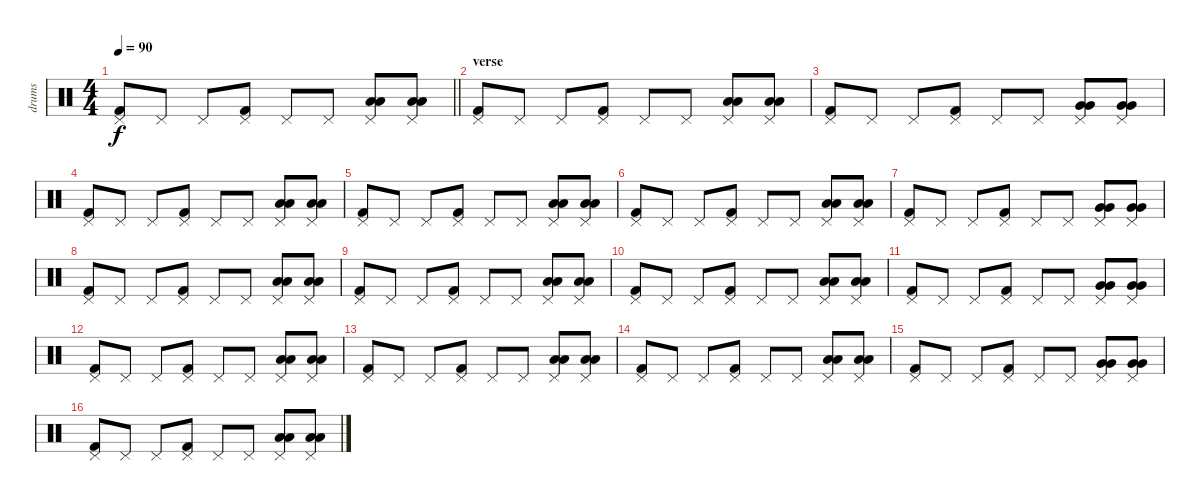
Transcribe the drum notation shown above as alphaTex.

\track ("drums" "drums") {instrument percussion}
\staff {score}
\articulation defaults
\ts (4 4)
\tempo 90
\clef neutral
\barLineRight lightlight
\ks c
("Kick (hit) 2" "Pedal Hi-Hat (hit)").8{dy f} "Pedal Hi-Hat (hit)".8 "Pedal Hi-Hat (hit)".8 ("Kick (hit) 2" "Pedal Hi-Hat (hit)").8 "Pedal Hi-Hat (hit)".8 "Pedal Hi-Hat (hit)".8 ("Low Floor Tom (hit)" "Low Floor Tom (hit)" "Pedal Hi-Hat (hit)").8 ("Low Floor Tom (hit)" "Low Floor Tom (hit)" "Pedal Hi-Hat (hit)").8 |
\section ("" "verse ")
("Kick (hit) 2" "Pedal Hi-Hat (hit)").8 "Pedal Hi-Hat (hit)".8 "Pedal Hi-Hat (hit)".8 ("Kick (hit) 2" "Pedal Hi-Hat (hit)").8 "Pedal Hi-Hat (hit)".8 "Pedal Hi-Hat (hit)".8 ("Low Tom (hit)" "Low Tom (hit)" "Pedal Hi-Hat (hit)").8 ("Low Tom (hit)" "Low Tom (hit)" "Pedal Hi-Hat (hit)").8 |
("Kick (hit) 2" "Pedal Hi-Hat (hit)").8 "Pedal Hi-Hat (hit)".8 "Pedal Hi-Hat (hit)".8 ("Kick (hit) 2" "Pedal Hi-Hat (hit)").8 "Pedal Hi-Hat (hit)".8 "Pedal Hi-Hat (hit)".8 ("Very Low Tom (hit)" "Very Low Tom (hit)" "Pedal Hi-Hat (hit)").8 ("Very Low Tom (hit)" "Very Low Tom (hit)" "Pedal Hi-Hat (hit)").8 |
("Kick (hit) 2" "Pedal Hi-Hat (hit)").8 "Pedal Hi-Hat (hit)".8 "Pedal Hi-Hat (hit)".8 ("Kick (hit) 2" "Pedal Hi-Hat (hit)").8 "Pedal Hi-Hat (hit)".8 "Pedal Hi-Hat (hit)".8 ("Low Tom (hit)" "Low Tom (hit)" "Pedal Hi-Hat (hit)").8 ("Low Tom (hit)" "Low Tom (hit)" "Pedal Hi-Hat (hit)").8 |
("Kick (hit) 2" "Pedal Hi-Hat (hit)").8 "Pedal Hi-Hat (hit)".8 "Pedal Hi-Hat (hit)".8 ("Kick (hit) 2" "Pedal Hi-Hat (hit)").8 "Pedal Hi-Hat (hit)".8 "Pedal Hi-Hat (hit)".8 ("Low Floor Tom (hit)" "Low Floor Tom (hit)" "Pedal Hi-Hat (hit)").8 ("Low Floor Tom (hit)" "Low Floor Tom (hit)" "Pedal Hi-Hat (hit)").8 |
("Kick (hit) 2" "Pedal Hi-Hat (hit)").8 "Pedal Hi-Hat (hit)".8 "Pedal Hi-Hat (hit)".8 ("Kick (hit) 2" "Pedal Hi-Hat (hit)").8 "Pedal Hi-Hat (hit)".8 "Pedal Hi-Hat (hit)".8 ("Low Tom (hit)" "Low Tom (hit)" "Pedal Hi-Hat (hit)").8 ("Low Tom (hit)" "Low Tom (hit)" "Pedal Hi-Hat (hit)").8 |
("Kick (hit) 2" "Pedal Hi-Hat (hit)").8 "Pedal Hi-Hat (hit)".8 "Pedal Hi-Hat (hit)".8 ("Kick (hit) 2" "Pedal Hi-Hat (hit)").8 "Pedal Hi-Hat (hit)".8 "Pedal Hi-Hat (hit)".8 ("Very Low Tom (hit)" "Very Low Tom (hit)" "Pedal Hi-Hat (hit)").8 ("Very Low Tom (hit)" "Very Low Tom (hit)" "Pedal Hi-Hat (hit)").8 |
("Kick (hit) 2" "Pedal Hi-Hat (hit)").8 "Pedal Hi-Hat (hit)".8 "Pedal Hi-Hat (hit)".8 ("Kick (hit) 2" "Pedal Hi-Hat (hit)").8 "Pedal Hi-Hat (hit)".8 "Pedal Hi-Hat (hit)".8 ("Low Tom (hit)" "Low Tom (hit)" "Pedal Hi-Hat (hit)").8 ("Low Tom (hit)" "Low Tom (hit)" "Pedal Hi-Hat (hit)").8 |
("Kick (hit) 2" "Pedal Hi-Hat (hit)").8 "Pedal Hi-Hat (hit)".8 "Pedal Hi-Hat (hit)".8 ("Kick (hit) 2" "Pedal Hi-Hat (hit)").8 "Pedal Hi-Hat (hit)".8 "Pedal Hi-Hat (hit)".8 ("Low Floor Tom (hit)" "Low Floor Tom (hit)" "Pedal Hi-Hat (hit)").8 ("Low Floor Tom (hit)" "Low Floor Tom (hit)" "Pedal Hi-Hat (hit)").8 |
("Kick (hit) 2" "Pedal Hi-Hat (hit)").8 "Pedal Hi-Hat (hit)".8 "Pedal Hi-Hat (hit)".8 ("Kick (hit) 2" "Pedal Hi-Hat (hit)").8 "Pedal Hi-Hat (hit)".8 "Pedal Hi-Hat (hit)".8 ("Low Tom (hit)" "Low Tom (hit)" "Pedal Hi-Hat (hit)").8 ("Low Tom (hit)" "Low Tom (hit)" "Pedal Hi-Hat (hit)").8 |
("Kick (hit) 2" "Pedal Hi-Hat (hit)").8 "Pedal Hi-Hat (hit)".8 "Pedal Hi-Hat (hit)".8 ("Kick (hit) 2" "Pedal Hi-Hat (hit)").8 "Pedal Hi-Hat (hit)".8 "Pedal Hi-Hat (hit)".8 ("Very Low Tom (hit)" "Very Low Tom (hit)" "Pedal Hi-Hat (hit)").8 ("Very Low Tom (hit)" "Very Low Tom (hit)" "Pedal Hi-Hat (hit)").8 |
("Kick (hit) 2" "Pedal Hi-Hat (hit)").8 "Pedal Hi-Hat (hit)".8 "Pedal Hi-Hat (hit)".8 ("Kick (hit) 2" "Pedal Hi-Hat (hit)").8 "Pedal Hi-Hat (hit)".8 "Pedal Hi-Hat (hit)".8 ("Low Tom (hit)" "Low Tom (hit)" "Pedal Hi-Hat (hit)").8 ("Low Tom (hit)" "Low Tom (hit)" "Pedal Hi-Hat (hit)").8 |
("Kick (hit) 2" "Pedal Hi-Hat (hit)").8 "Pedal Hi-Hat (hit)".8 "Pedal Hi-Hat (hit)".8 ("Kick (hit) 2" "Pedal Hi-Hat (hit)").8 "Pedal Hi-Hat (hit)".8 "Pedal Hi-Hat (hit)".8 ("Low Floor Tom (hit)" "Low Floor Tom (hit)" "Pedal Hi-Hat (hit)").8 ("Low Floor Tom (hit)" "Low Floor Tom (hit)" "Pedal Hi-Hat (hit)").8 |
("Kick (hit) 2" "Pedal Hi-Hat (hit)").8 "Pedal Hi-Hat (hit)".8 "Pedal Hi-Hat (hit)".8 ("Kick (hit) 2" "Pedal Hi-Hat (hit)").8 "Pedal Hi-Hat (hit)".8 "Pedal Hi-Hat (hit)".8 ("Low Tom (hit)" "Low Tom (hit)" "Pedal Hi-Hat (hit)").8 ("Low Tom (hit)" "Low Tom (hit)" "Pedal Hi-Hat (hit)").8 |
("Kick (hit) 2" "Pedal Hi-Hat (hit)").8 "Pedal Hi-Hat (hit)".8 "Pedal Hi-Hat (hit)".8 ("Kick (hit) 2" "Pedal Hi-Hat (hit)").8 "Pedal Hi-Hat (hit)".8 "Pedal Hi-Hat (hit)".8 ("Very Low Tom (hit)" "Very Low Tom (hit)" "Pedal Hi-Hat (hit)").8 ("Very Low Tom (hit)" "Very Low Tom (hit)" "Pedal Hi-Hat (hit)").8 |
("Kick (hit) 2" "Pedal Hi-Hat (hit)").8 "Pedal Hi-Hat (hit)".8 "Pedal Hi-Hat (hit)".8 ("Kick (hit) 2" "Pedal Hi-Hat (hit)").8 "Pedal Hi-Hat (hit)".8 "Pedal Hi-Hat (hit)".8 ("Low Tom (hit)" "Low Tom (hit)" "Pedal Hi-Hat (hit)").8 ("Low Tom (hit)" "Low Tom (hit)" "Pedal Hi-Hat (hit)").8
